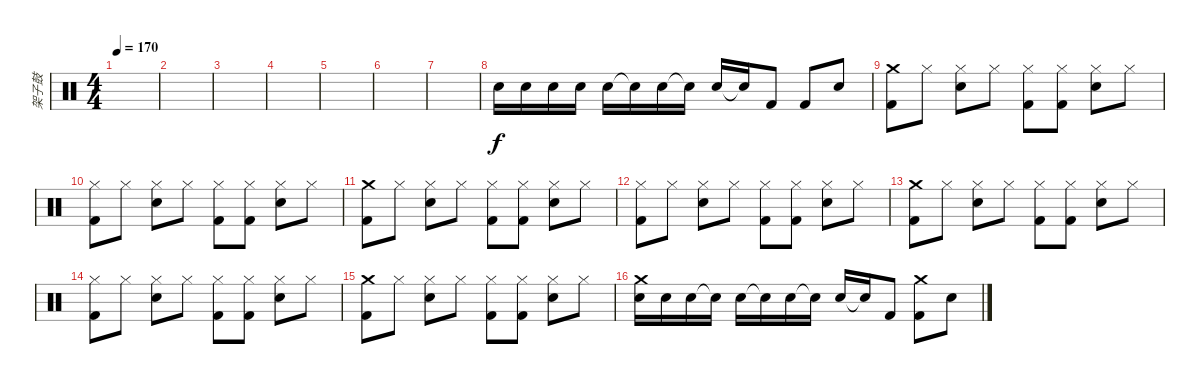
\track ("架子鼓" "架子鼓") {instrument percussion}
\staff {score}
\articulation defaults
\ts (4 4)
\tempo 170
\clef neutral
\ks c
|
|
|
|
|
|
|
"Snare (hit) 2".16 "Snare (hit) 2".16 "Snare (hit) 2".16 "Snare (hit) 2".16 "Snare (hit) 2".16 "Snare (hit)"{t}.16 "Snare (hit) 2".16 "Snare (hit)"{t}.16 "Snare (hit) 2".16 "Snare (hit)"{t}.16 "Kick (hit) 2".8 "Kick (hit) 2".8 "Snare (hit) 2".8 |
("Crash medium (hit)" "Kick (hit) 2").8 "Hi-Hat (closed)".8 ("Hi-Hat (closed)" "Snare (hit) 2").8 "Hi-Hat (closed)".8 ("Hi-Hat (closed)" "Kick (hit) 2").8 ("Hi-Hat (closed)" "Kick (hit) 2").8 ("Hi-Hat (closed)" "Snare (hit) 2").8 "Hi-Hat (closed)".8 |
("Hi-Hat (closed)" "Kick (hit) 2").8 "Hi-Hat (closed)".8 ("Hi-Hat (closed)" "Snare (hit) 2").8 "Hi-Hat (closed)".8 ("Hi-Hat (closed)" "Kick (hit) 2").8 ("Hi-Hat (closed)" "Kick (hit) 2").8 ("Hi-Hat (closed)" "Snare (hit) 2").8 "Hi-Hat (closed)".8 |
("Crash medium (hit)" "Kick (hit) 2").8 "Hi-Hat (closed)".8 ("Hi-Hat (closed)" "Snare (hit) 2").8 "Hi-Hat (closed)".8 ("Hi-Hat (closed)" "Kick (hit) 2").8 ("Hi-Hat (closed)" "Kick (hit) 2").8 ("Hi-Hat (closed)" "Snare (hit) 2").8 "Hi-Hat (closed)".8 |
("Hi-Hat (closed)" "Kick (hit) 2").8 "Hi-Hat (closed)".8 ("Hi-Hat (closed)" "Snare (hit) 2").8 "Hi-Hat (closed)".8 ("Hi-Hat (closed)" "Kick (hit) 2").8 ("Hi-Hat (closed)" "Kick (hit) 2").8 ("Hi-Hat (closed)" "Snare (hit) 2").8 "Hi-Hat (closed)".8 |
("Crash medium (hit)" "Kick (hit) 2").8 "Hi-Hat (closed)".8 ("Hi-Hat (closed)" "Snare (hit) 2").8 "Hi-Hat (closed)".8 ("Hi-Hat (closed)" "Kick (hit) 2").8 ("Hi-Hat (closed)" "Kick (hit) 2").8 ("Hi-Hat (closed)" "Snare (hit) 2").8 "Hi-Hat (closed)".8 |
("Hi-Hat (closed)" "Kick (hit) 2").8 "Hi-Hat (closed)".8 ("Hi-Hat (closed)" "Snare (hit) 2").8 "Hi-Hat (closed)".8 ("Hi-Hat (closed)" "Kick (hit) 2").8 ("Hi-Hat (closed)" "Kick (hit) 2").8 ("Hi-Hat (closed)" "Snare (hit) 2").8 "Hi-Hat (closed)".8 |
("Crash medium (hit)" "Kick (hit) 2").8 "Hi-Hat (closed)".8 ("Hi-Hat (closed)" "Snare (hit) 2").8 "Hi-Hat (closed)".8 ("Hi-Hat (closed)" "Kick (hit) 2").8 ("Hi-Hat (closed)" "Kick (hit) 2").8 ("Hi-Hat (closed)" "Snare (hit) 2").8 "Hi-Hat (closed)".8 |
("Crash medium (hit)" "Snare (hit) 2").16 "Snare (hit) 2".16 "Snare (hit) 2".16 "Snare (hit)"{t}.16 "Snare (hit) 2".16 "Snare (hit)"{t}.16 "Snare (hit) 2".16 "Snare (hit)"{t}.16 "Snare (hit) 2".16 "Snare (hit)"{t}.16 "Kick (hit) 2".8 ("Crash medium (hit)" "Kick (hit) 2").8 "Snare (hit) 2".8
